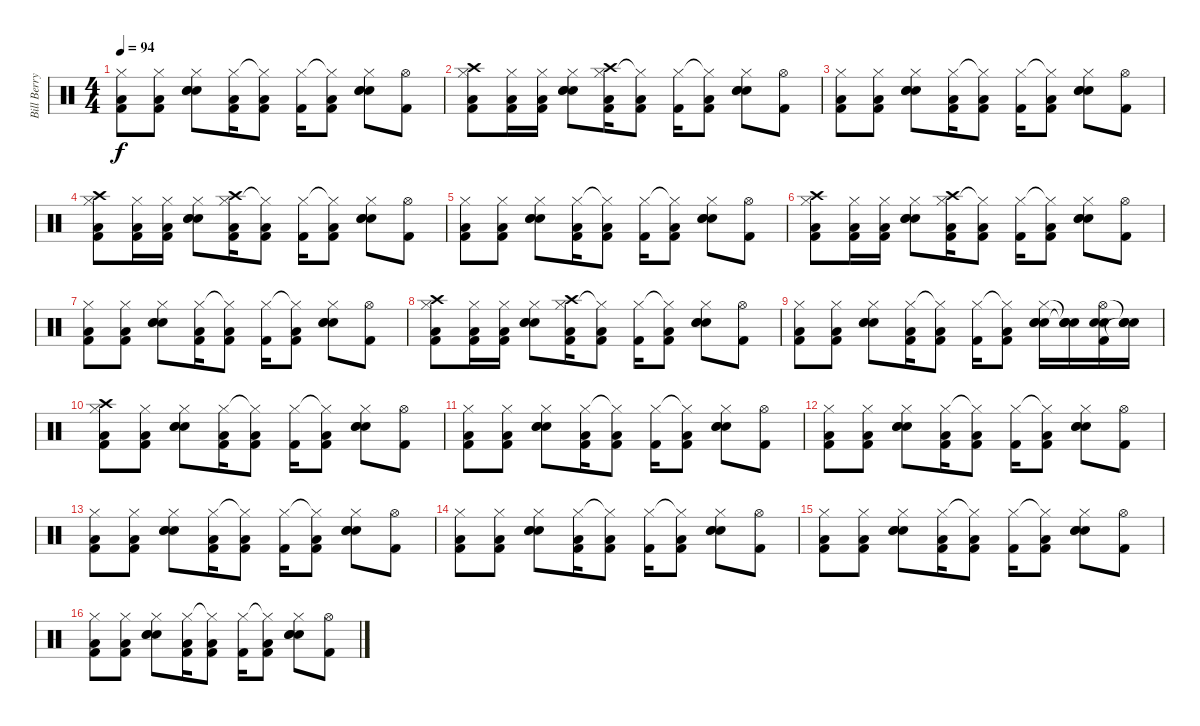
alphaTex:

\track ("Bill Berry - Drums" "Bill Berry") {instrument percussion}
\staff {score}
\articulation defaults
\ts (4 4)
\tempo 94
\clef neutral
\ks c
("Hi-Hat (closed)" "Kick (hit) 2" "Low Tom (hit)").8{dy f} ("Hi-Hat (closed)" "Kick (hit) 2" "Low Tom (hit)").8 ("Hi-Hat (closed)" "Electric Snare (hit)" "Snare (hit) 2" "Electric Snare (hit)").8 ("Hi-Hat (closed)" "Kick (hit) 2" "Low Tom (hit)").16 ("Hi-Hat (closed)"{t} "Kick (hit) 2" "Low Tom (hit)").8 ("Hi-Hat (closed)" "Kick (hit) 2").16 ("Hi-Hat (closed)"{t} "Kick (hit) 2" "Low Tom (hit)").8 ("Hi-Hat (closed)" "Electric Snare (hit)" "Snare (hit) 2" "Electric Snare (hit)").8 ("Hi-Hat (open)" "Kick (hit) 2").8 |
("Hi-Hat (closed)" "Kick (hit) 2" "Low Tom (hit)" "Crash high (hit)").8 ("Hi-Hat (closed)" "Kick (hit) 2" "Low Tom (hit)").16 ("Hi-Hat (closed)" "Kick (hit) 2" "Low Tom (hit)").16 ("Hi-Hat (closed)" "Electric Snare (hit)" "Snare (hit) 2" "Electric Snare (hit)").8 ("Hi-Hat (closed)" "Kick (hit) 2" "Low Tom (hit)" "Crash high (hit)").16 ("Hi-Hat (closed)"{t} "Kick (hit) 2" "Low Tom (hit)").8 ("Hi-Hat (closed)" "Kick (hit) 2").16 ("Hi-Hat (closed)"{t} "Kick (hit) 2" "Low Tom (hit)").8 ("Hi-Hat (closed)" "Electric Snare (hit)" "Snare (hit) 2" "Electric Snare (hit)").8 ("Hi-Hat (open)" "Kick (hit) 2").8 |
("Hi-Hat (closed)" "Kick (hit) 2" "Low Tom (hit)").8 ("Hi-Hat (closed)" "Kick (hit) 2" "Low Tom (hit)").8 ("Hi-Hat (closed)" "Electric Snare (hit)" "Snare (hit) 2" "Electric Snare (hit)").8 ("Hi-Hat (closed)" "Kick (hit) 2" "Low Tom (hit)").16 ("Hi-Hat (closed)"{t} "Kick (hit) 2" "Low Tom (hit)").8 ("Hi-Hat (closed)" "Kick (hit) 2").16 ("Hi-Hat (closed)"{t} "Kick (hit) 2" "Low Tom (hit)").8 ("Hi-Hat (closed)" "Electric Snare (hit)" "Snare (hit) 2" "Electric Snare (hit)").8 ("Hi-Hat (open)" "Kick (hit) 2").8 |
("Hi-Hat (closed)" "Kick (hit) 2" "Low Tom (hit)" "Crash high (hit)").8 ("Hi-Hat (closed)" "Kick (hit) 2" "Low Tom (hit)").16 ("Hi-Hat (closed)" "Kick (hit) 2" "Low Tom (hit)").16 ("Hi-Hat (closed)" "Electric Snare (hit)" "Snare (hit) 2" "Electric Snare (hit)").8 ("Hi-Hat (closed)" "Kick (hit) 2" "Low Tom (hit)" "Crash high (hit)").16 ("Hi-Hat (closed)"{t} "Kick (hit) 2" "Low Tom (hit)").8 ("Hi-Hat (closed)" "Kick (hit) 2").16 ("Hi-Hat (closed)"{t} "Kick (hit) 2" "Low Tom (hit)").8 ("Hi-Hat (closed)" "Electric Snare (hit)" "Snare (hit) 2" "Electric Snare (hit)").8 ("Hi-Hat (open)" "Kick (hit) 2").8 |
("Hi-Hat (closed)" "Kick (hit) 2" "Low Tom (hit)").8 ("Hi-Hat (closed)" "Kick (hit) 2" "Low Tom (hit)").8 ("Hi-Hat (closed)" "Electric Snare (hit)" "Snare (hit) 2" "Electric Snare (hit)").8 ("Hi-Hat (closed)" "Kick (hit) 2" "Low Tom (hit)").16 ("Hi-Hat (closed)"{t} "Kick (hit) 2" "Low Tom (hit)").8 ("Hi-Hat (closed)" "Kick (hit) 2").16 ("Hi-Hat (closed)"{t} "Kick (hit) 2" "Low Tom (hit)").8 ("Hi-Hat (closed)" "Electric Snare (hit)" "Snare (hit) 2" "Electric Snare (hit)").8 ("Hi-Hat (open)" "Kick (hit) 2").8 |
("Hi-Hat (closed)" "Kick (hit) 2" "Low Tom (hit)" "Crash high (hit)").8 ("Hi-Hat (closed)" "Kick (hit) 2" "Low Tom (hit)").16 ("Hi-Hat (closed)" "Kick (hit) 2" "Low Tom (hit)").16 ("Hi-Hat (closed)" "Electric Snare (hit)" "Snare (hit) 2" "Electric Snare (hit)").8 ("Hi-Hat (closed)" "Kick (hit) 2" "Low Tom (hit)" "Crash high (hit)").16 ("Hi-Hat (closed)"{t} "Kick (hit) 2" "Low Tom (hit)").8 ("Hi-Hat (closed)" "Kick (hit) 2").16 ("Hi-Hat (closed)"{t} "Kick (hit) 2" "Low Tom (hit)").8 ("Hi-Hat (closed)" "Electric Snare (hit)" "Snare (hit) 2" "Electric Snare (hit)").8 ("Hi-Hat (open)" "Kick (hit) 2").8 |
("Hi-Hat (closed)" "Kick (hit) 2" "Low Tom (hit)").8 ("Hi-Hat (closed)" "Kick (hit) 2" "Low Tom (hit)").8 ("Hi-Hat (closed)" "Electric Snare (hit)" "Snare (hit) 2" "Electric Snare (hit)").8 ("Hi-Hat (closed)" "Kick (hit) 2" "Low Tom (hit)").16 ("Hi-Hat (closed)"{t} "Kick (hit) 2" "Low Tom (hit)").8 ("Hi-Hat (closed)" "Kick (hit) 2").16 ("Hi-Hat (closed)"{t} "Kick (hit) 2" "Low Tom (hit)").8 ("Hi-Hat (closed)" "Electric Snare (hit)" "Snare (hit) 2" "Electric Snare (hit)").8 ("Hi-Hat (open)" "Kick (hit) 2").8 |
("Hi-Hat (closed)" "Kick (hit) 2" "Low Tom (hit)" "Crash high (hit)").8 ("Hi-Hat (closed)" "Kick (hit) 2" "Low Tom (hit)").16 ("Hi-Hat (closed)" "Kick (hit) 2" "Low Tom (hit)").16 ("Hi-Hat (closed)" "Electric Snare (hit)" "Snare (hit) 2" "Electric Snare (hit)").8 ("Hi-Hat (closed)" "Kick (hit) 2" "Low Tom (hit)" "Crash high (hit)").16 ("Hi-Hat (closed)"{t} "Kick (hit) 2" "Low Tom (hit)").8 ("Hi-Hat (closed)" "Kick (hit) 2").16 ("Hi-Hat (closed)"{t} "Kick (hit) 2" "Low Tom (hit)").8 ("Hi-Hat (closed)" "Electric Snare (hit)" "Snare (hit) 2" "Electric Snare (hit)").8 ("Hi-Hat (open)" "Kick (hit) 2").8 |
("Hi-Hat (closed)" "Kick (hit) 2" "Low Tom (hit)").8 ("Hi-Hat (closed)" "Kick (hit) 2" "Low Tom (hit)").8 ("Hi-Hat (closed)" "Electric Snare (hit)" "Snare (hit) 2" "Electric Snare (hit)").8 ("Hi-Hat (closed)" "Kick (hit) 2" "Low Tom (hit)").16 ("Hi-Hat (closed)"{t} "Kick (hit) 2" "Low Tom (hit)").8 ("Hi-Hat (closed)" "Kick (hit) 2").16 ("Hi-Hat (closed)"{t} "Kick (hit) 2" "Low Tom (hit)").8 ("Hi-Hat (closed)" "Electric Snare (hit)" "Snare (hit) 2" "Electric Snare (hit)").16 ("Snare (hit)"{t} "Snare (hit)"{t} "Snare (hit) 2" "Electric Snare (hit)").16 ("Hi-Hat (open)" "Kick (hit) 2" "Snare (hit) 2" "Electric Snare (hit)").16 ("Snare (hit)"{t} "Snare (hit)"{t} "Snare (hit) 2" "Electric Snare (hit)").16 |
("Hi-Hat (closed)" "Kick (hit) 2" "Low Tom (hit)" "Crash high (hit)").8 ("Hi-Hat (closed)" "Kick (hit) 2" "Low Tom (hit)").8 ("Hi-Hat (closed)" "Electric Snare (hit)" "Snare (hit) 2" "Electric Snare (hit)").8 ("Hi-Hat (closed)" "Kick (hit) 2" "Low Tom (hit)").16 ("Hi-Hat (closed)"{t} "Kick (hit) 2" "Low Tom (hit)").8 ("Hi-Hat (closed)" "Kick (hit) 2").16 ("Hi-Hat (closed)"{t} "Kick (hit) 2" "Low Tom (hit)").8 ("Hi-Hat (closed)" "Electric Snare (hit)" "Snare (hit) 2" "Electric Snare (hit)").8 ("Hi-Hat (open)" "Kick (hit) 2").8 |
("Hi-Hat (closed)" "Kick (hit) 2" "Low Tom (hit)").8 ("Hi-Hat (closed)" "Kick (hit) 2" "Low Tom (hit)").8 ("Hi-Hat (closed)" "Electric Snare (hit)" "Snare (hit) 2" "Electric Snare (hit)").8 ("Hi-Hat (closed)" "Kick (hit) 2" "Low Tom (hit)").16 ("Hi-Hat (closed)"{t} "Kick (hit) 2" "Low Tom (hit)").8 ("Hi-Hat (closed)" "Kick (hit) 2").16 ("Hi-Hat (closed)"{t} "Kick (hit) 2" "Low Tom (hit)").8 ("Hi-Hat (closed)" "Electric Snare (hit)" "Snare (hit) 2" "Electric Snare (hit)").8 ("Hi-Hat (open)" "Kick (hit) 2").8 |
("Hi-Hat (closed)" "Kick (hit) 2" "Low Tom (hit)").8 ("Hi-Hat (closed)" "Kick (hit) 2" "Low Tom (hit)").8 ("Hi-Hat (closed)" "Electric Snare (hit)" "Snare (hit) 2" "Electric Snare (hit)").8 ("Hi-Hat (closed)" "Kick (hit) 2" "Low Tom (hit)").16 ("Hi-Hat (closed)"{t} "Kick (hit) 2" "Low Tom (hit)").8 ("Hi-Hat (closed)" "Kick (hit) 2").16 ("Hi-Hat (closed)"{t} "Kick (hit) 2" "Low Tom (hit)").8 ("Hi-Hat (closed)" "Electric Snare (hit)" "Snare (hit) 2" "Electric Snare (hit)").8 ("Hi-Hat (open)" "Kick (hit) 2").8 |
("Hi-Hat (closed)" "Kick (hit) 2" "Low Tom (hit)").8 ("Hi-Hat (closed)" "Kick (hit) 2" "Low Tom (hit)").8 ("Hi-Hat (closed)" "Electric Snare (hit)" "Snare (hit) 2" "Electric Snare (hit)").8 ("Hi-Hat (closed)" "Kick (hit) 2" "Low Tom (hit)").16 ("Hi-Hat (closed)"{t} "Kick (hit) 2" "Low Tom (hit)").8 ("Hi-Hat (closed)" "Kick (hit) 2").16 ("Hi-Hat (closed)"{t} "Kick (hit) 2" "Low Tom (hit)").8 ("Hi-Hat (closed)" "Electric Snare (hit)" "Snare (hit) 2" "Electric Snare (hit)").8 ("Hi-Hat (open)" "Kick (hit) 2").8 |
("Hi-Hat (closed)" "Kick (hit) 2" "Low Tom (hit)").8 ("Hi-Hat (closed)" "Kick (hit) 2" "Low Tom (hit)").8 ("Hi-Hat (closed)" "Electric Snare (hit)" "Snare (hit) 2" "Electric Snare (hit)").8 ("Hi-Hat (closed)" "Kick (hit) 2" "Low Tom (hit)").16 ("Hi-Hat (closed)"{t} "Kick (hit) 2" "Low Tom (hit)").8 ("Hi-Hat (closed)" "Kick (hit) 2").16 ("Hi-Hat (closed)"{t} "Kick (hit) 2" "Low Tom (hit)").8 ("Hi-Hat (closed)" "Electric Snare (hit)" "Snare (hit) 2" "Electric Snare (hit)").8 ("Hi-Hat (open)" "Kick (hit) 2").8 |
("Hi-Hat (closed)" "Kick (hit) 2" "Low Tom (hit)").8 ("Hi-Hat (closed)" "Kick (hit) 2" "Low Tom (hit)").8 ("Hi-Hat (closed)" "Electric Snare (hit)" "Snare (hit) 2" "Electric Snare (hit)").8 ("Hi-Hat (closed)" "Kick (hit) 2" "Low Tom (hit)").16 ("Hi-Hat (closed)"{t} "Kick (hit) 2" "Low Tom (hit)").8 ("Hi-Hat (closed)" "Kick (hit) 2").16 ("Hi-Hat (closed)"{t} "Kick (hit) 2" "Low Tom (hit)").8 ("Hi-Hat (closed)" "Electric Snare (hit)" "Snare (hit) 2" "Electric Snare (hit)").8 ("Hi-Hat (open)" "Kick (hit) 2").8 |
("Hi-Hat (closed)" "Kick (hit) 2" "Low Tom (hit)").8 ("Hi-Hat (closed)" "Kick (hit) 2" "Low Tom (hit)").8 ("Hi-Hat (closed)" "Electric Snare (hit)" "Snare (hit) 2" "Electric Snare (hit)").8 ("Hi-Hat (closed)" "Kick (hit) 2" "Low Tom (hit)").16 ("Hi-Hat (closed)"{t} "Kick (hit) 2" "Low Tom (hit)").8 ("Hi-Hat (closed)" "Kick (hit) 2").16 ("Hi-Hat (closed)"{t} "Kick (hit) 2" "Low Tom (hit)").8 ("Hi-Hat (closed)" "Electric Snare (hit)" "Snare (hit) 2" "Electric Snare (hit)").8 ("Hi-Hat (open)" "Kick (hit) 2").8
